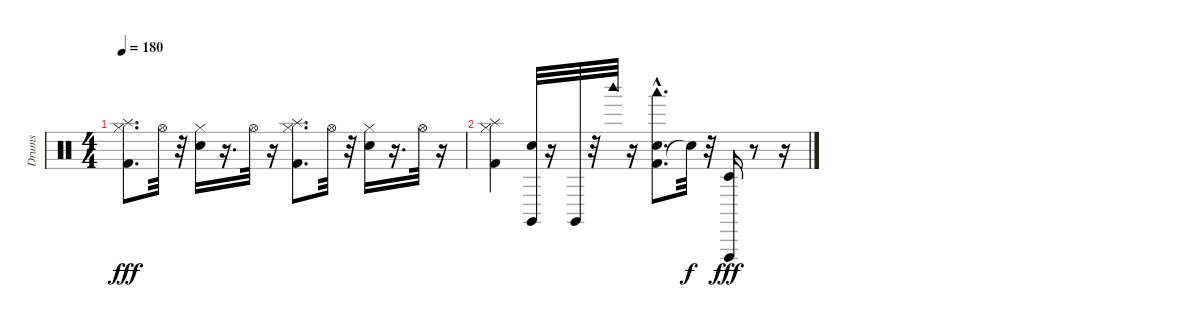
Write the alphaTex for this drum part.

\track ("Drums" "Drums") {instrument percussion}
\staff {score}
\articulation defaults
\ts (4 4)
\tempo 180
\clef neutral
\ks c
("Kick (hit) 2" "Hi-Hat (closed)" "Splash (hit)").8{d dy fff} "Hi-Hat (open)".32 r.32 ("Hi-Hat (closed)" "Electric Snare (hit)").16 r.16{d} "Hi-Hat (open)".32 r.16 ("Kick (hit) 2" "Hi-Hat (closed)" "Splash (hit)").8{d} "Hi-Hat (open)".32 r.32 ("Electric Snare (hit)" "Hi-Hat (closed)").16 r.16{d} "Hi-Hat (open)".32 r.16 |
("Kick (hit) 2" "Hi-Hat (closed)" "Splash (hit)").4 ("Claves (hit)" "Electric Snare (hit)").32 r.16 "Claves (hit)".32 r.32 "Woodblock high (hit)".32 r.16 ("Kick (hit) 2"{hac} "Electric Snare (hit)" "Woodblock low (hit)"{hac}).8{d} "Snare (hit)"{t}.32{dy f} r.32 ("Timbale low (hit)" "Vibraslap (hit)").16{dy fff} r.8 r.16
